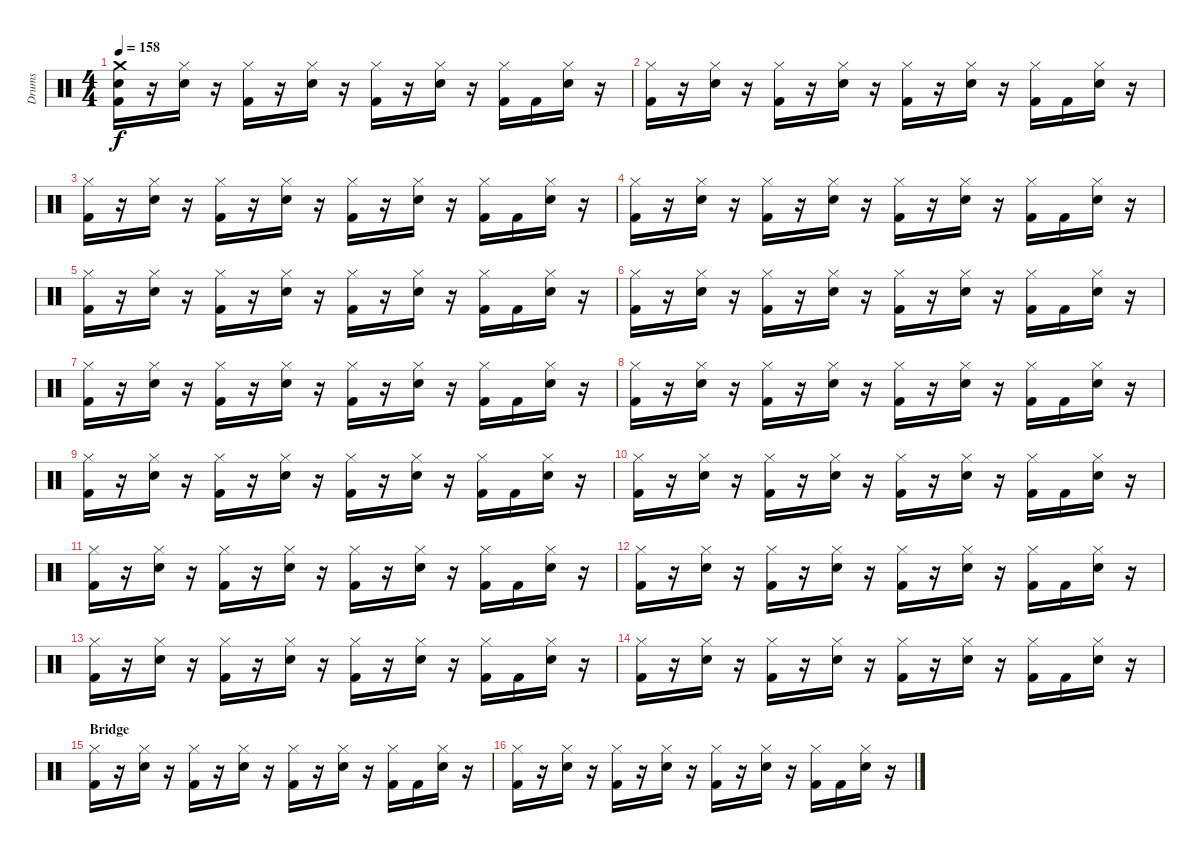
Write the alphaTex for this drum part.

\track ("Drums" "Drums") {instrument percussion}
\staff {score}
\articulation defaults
\ts (4 4)
\tempo 158
\clef neutral
\ks c
("Crash medium (hit)" "Snare (hit)"{t} "Kick (hit) 2").16{dy f} r.16 ("Hi-Hat (closed)" "Electric Snare (hit)").16 r.16 ("Hi-Hat (closed)" "Kick (hit) 2").16 r.16 ("Hi-Hat (closed)" "Electric Snare (hit)").16 r.16 ("Hi-Hat (closed)" "Kick (hit) 2").16 r.16 ("Hi-Hat (closed)" "Electric Snare (hit)").16 r.16 ("Hi-Hat (closed)" "Kick (hit) 2").16 "Kick (hit) 2".16 ("Hi-Hat (closed)" "Electric Snare (hit)").16 r.16 |
("Hi-Hat (closed)" "Kick (hit) 2").16 r.16 ("Hi-Hat (closed)" "Electric Snare (hit)").16 r.16 ("Hi-Hat (closed)" "Kick (hit) 2").16 r.16 ("Hi-Hat (closed)" "Electric Snare (hit)").16 r.16 ("Hi-Hat (closed)" "Kick (hit) 2").16 r.16 ("Hi-Hat (closed)" "Electric Snare (hit)").16 r.16 ("Hi-Hat (closed)" "Kick (hit) 2").16 "Kick (hit) 2".16 ("Hi-Hat (closed)" "Electric Snare (hit)").16 r.16 |
("Hi-Hat (closed)" "Kick (hit) 2").16 r.16 ("Hi-Hat (closed)" "Electric Snare (hit)").16 r.16 ("Hi-Hat (closed)" "Kick (hit) 2").16 r.16 ("Hi-Hat (closed)" "Electric Snare (hit)").16 r.16 ("Hi-Hat (closed)" "Kick (hit) 2").16 r.16 ("Hi-Hat (closed)" "Electric Snare (hit)").16 r.16 ("Hi-Hat (closed)" "Kick (hit) 2").16 "Kick (hit) 2".16 ("Hi-Hat (closed)" "Electric Snare (hit)").16 r.16 |
("Hi-Hat (closed)" "Kick (hit) 2").16 r.16 ("Hi-Hat (closed)" "Electric Snare (hit)").16 r.16 ("Hi-Hat (closed)" "Kick (hit) 2").16 r.16 ("Hi-Hat (closed)" "Electric Snare (hit)").16 r.16 ("Hi-Hat (closed)" "Kick (hit) 2").16 r.16 ("Hi-Hat (closed)" "Electric Snare (hit)").16 r.16 ("Hi-Hat (closed)" "Kick (hit) 2").16 "Kick (hit) 2".16 ("Hi-Hat (closed)" "Electric Snare (hit)").16 r.16 |
("Hi-Hat (closed)" "Kick (hit) 2").16 r.16 ("Hi-Hat (closed)" "Electric Snare (hit)").16 r.16 ("Hi-Hat (closed)" "Kick (hit) 2").16 r.16 ("Hi-Hat (closed)" "Electric Snare (hit)").16 r.16 ("Hi-Hat (closed)" "Kick (hit) 2").16 r.16 ("Hi-Hat (closed)" "Electric Snare (hit)").16 r.16 ("Hi-Hat (closed)" "Kick (hit) 2").16 "Kick (hit) 2".16 ("Hi-Hat (closed)" "Electric Snare (hit)").16 r.16 |
("Hi-Hat (closed)" "Kick (hit) 2").16 r.16 ("Hi-Hat (closed)" "Electric Snare (hit)").16 r.16 ("Hi-Hat (closed)" "Kick (hit) 2").16 r.16 ("Hi-Hat (closed)" "Electric Snare (hit)").16 r.16 ("Hi-Hat (closed)" "Kick (hit) 2").16 r.16 ("Hi-Hat (closed)" "Electric Snare (hit)").16 r.16 ("Hi-Hat (closed)" "Kick (hit) 2").16 "Kick (hit) 2".16 ("Hi-Hat (closed)" "Electric Snare (hit)").16 r.16 |
("Hi-Hat (closed)" "Kick (hit) 2").16 r.16 ("Hi-Hat (closed)" "Electric Snare (hit)").16 r.16 ("Hi-Hat (closed)" "Kick (hit) 2").16 r.16 ("Hi-Hat (closed)" "Electric Snare (hit)").16 r.16 ("Hi-Hat (closed)" "Kick (hit) 2").16 r.16 ("Hi-Hat (closed)" "Electric Snare (hit)").16 r.16 ("Hi-Hat (closed)" "Kick (hit) 2").16 "Kick (hit) 2".16 ("Hi-Hat (closed)" "Electric Snare (hit)").16 r.16 |
("Hi-Hat (closed)" "Kick (hit) 2").16 r.16 ("Hi-Hat (closed)" "Electric Snare (hit)").16 r.16 ("Hi-Hat (closed)" "Kick (hit) 2").16 r.16 ("Hi-Hat (closed)" "Electric Snare (hit)").16 r.16 ("Hi-Hat (closed)" "Kick (hit) 2").16 r.16 ("Hi-Hat (closed)" "Electric Snare (hit)").16 r.16 ("Hi-Hat (closed)" "Kick (hit) 2").16 "Kick (hit) 2".16 ("Hi-Hat (closed)" "Electric Snare (hit)").16 r.16 |
("Hi-Hat (closed)" "Kick (hit) 2").16 r.16 ("Hi-Hat (closed)" "Electric Snare (hit)").16 r.16 ("Hi-Hat (closed)" "Kick (hit) 2").16 r.16 ("Hi-Hat (closed)" "Electric Snare (hit)").16 r.16 ("Hi-Hat (closed)" "Kick (hit) 2").16 r.16 ("Hi-Hat (closed)" "Electric Snare (hit)").16 r.16 ("Hi-Hat (closed)" "Kick (hit) 2").16 "Kick (hit) 2".16 ("Hi-Hat (closed)" "Electric Snare (hit)").16 r.16 |
("Hi-Hat (closed)" "Kick (hit) 2").16 r.16 ("Hi-Hat (closed)" "Electric Snare (hit)").16 r.16 ("Hi-Hat (closed)" "Kick (hit) 2").16 r.16 ("Hi-Hat (closed)" "Electric Snare (hit)").16 r.16 ("Hi-Hat (closed)" "Kick (hit) 2").16 r.16 ("Hi-Hat (closed)" "Electric Snare (hit)").16 r.16 ("Hi-Hat (closed)" "Kick (hit) 2").16 "Kick (hit) 2".16 ("Hi-Hat (closed)" "Electric Snare (hit)").16 r.16 |
("Hi-Hat (closed)" "Kick (hit) 2").16 r.16 ("Hi-Hat (closed)" "Electric Snare (hit)").16 r.16 ("Hi-Hat (closed)" "Kick (hit) 2").16 r.16 ("Hi-Hat (closed)" "Electric Snare (hit)").16 r.16 ("Hi-Hat (closed)" "Kick (hit) 2").16 r.16 ("Hi-Hat (closed)" "Electric Snare (hit)").16 r.16 ("Hi-Hat (closed)" "Kick (hit) 2").16 "Kick (hit) 2".16 ("Hi-Hat (closed)" "Electric Snare (hit)").16 r.16 |
("Hi-Hat (closed)" "Kick (hit) 2").16 r.16 ("Hi-Hat (closed)" "Electric Snare (hit)").16 r.16 ("Hi-Hat (closed)" "Kick (hit) 2").16 r.16 ("Hi-Hat (closed)" "Electric Snare (hit)").16 r.16 ("Hi-Hat (closed)" "Kick (hit) 2").16 r.16 ("Hi-Hat (closed)" "Electric Snare (hit)").16 r.16 ("Hi-Hat (closed)" "Kick (hit) 2").16 "Kick (hit) 2".16 ("Hi-Hat (closed)" "Electric Snare (hit)").16 r.16 |
("Hi-Hat (closed)" "Kick (hit) 2").16 r.16 ("Hi-Hat (closed)" "Electric Snare (hit)").16 r.16 ("Hi-Hat (closed)" "Kick (hit) 2").16 r.16 ("Hi-Hat (closed)" "Electric Snare (hit)").16 r.16 ("Hi-Hat (closed)" "Kick (hit) 2").16 r.16 ("Hi-Hat (closed)" "Electric Snare (hit)").16 r.16 ("Hi-Hat (closed)" "Kick (hit) 2").16 "Kick (hit) 2".16 ("Hi-Hat (closed)" "Electric Snare (hit)").16 r.16 |
("Hi-Hat (closed)" "Kick (hit) 2").16 r.16 ("Hi-Hat (closed)" "Electric Snare (hit)").16 r.16 ("Hi-Hat (closed)" "Kick (hit) 2").16 r.16 ("Hi-Hat (closed)" "Electric Snare (hit)").16 r.16 ("Hi-Hat (closed)" "Kick (hit) 2").16 r.16 ("Hi-Hat (closed)" "Electric Snare (hit)").16 r.16 ("Hi-Hat (closed)" "Kick (hit) 2").16 "Kick (hit) 2".16 ("Hi-Hat (closed)" "Electric Snare (hit)").16 r.16 |
\section ("" "Bridge")
("Hi-Hat (closed)" "Kick (hit) 2").16 r.16 ("Hi-Hat (closed)" "Electric Snare (hit)").16 r.16 ("Hi-Hat (closed)" "Kick (hit) 2").16 r.16 ("Hi-Hat (closed)" "Electric Snare (hit)").16 r.16 ("Hi-Hat (closed)" "Kick (hit) 2").16 r.16 ("Hi-Hat (closed)" "Electric Snare (hit)").16 r.16 ("Hi-Hat (closed)" "Kick (hit) 2").16 "Kick (hit) 2".16 ("Hi-Hat (closed)" "Electric Snare (hit)").16 r.16 |
("Hi-Hat (closed)" "Kick (hit) 2").16 r.16 ("Hi-Hat (closed)" "Electric Snare (hit)").16 r.16 ("Hi-Hat (closed)" "Kick (hit) 2").16 r.16 ("Hi-Hat (closed)" "Electric Snare (hit)").16 r.16 ("Hi-Hat (closed)" "Kick (hit) 2").16 r.16 ("Hi-Hat (closed)" "Electric Snare (hit)").16 r.16 ("Hi-Hat (closed)" "Kick (hit) 2").16 "Kick (hit) 2".16 ("Hi-Hat (closed)" "Electric Snare (hit)").16 r.16
